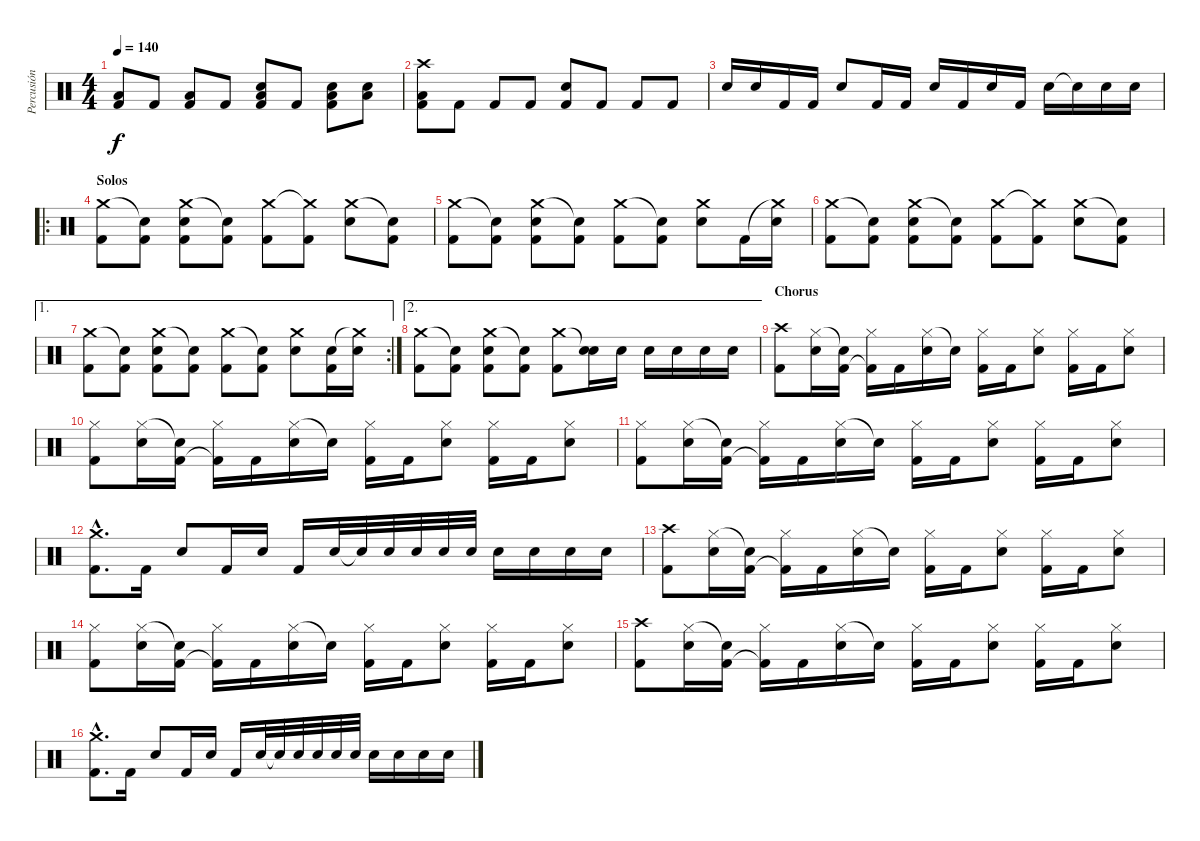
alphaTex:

\track ("Percusión" "Percusión") {instrument percussion}
\staff {score}
\articulation defaults
\ts (4 4)
\tempo 140
\clef neutral
\ks c
("Low Floor Tom (hit)" "Kick (hit) 2").8{dy f} "Kick (hit) 2".8 ("Low Floor Tom (hit)" "Kick (hit) 2").8 "Kick (hit) 2".8 ("Electric Snare (hit)" "Low Floor Tom (hit)" "Kick (hit) 2").8 "Kick (hit) 2".8 ("Electric Snare (hit)" "Low Floor Tom (hit)" "Kick (hit) 2").8 ("Electric Snare (hit)" "Low Floor Tom (hit)").8 |
("Crash high (hit)" "Low Floor Tom (hit)" "Kick (hit) 2").8 "Kick (hit) 2".8 "Kick (hit) 2".8 "Kick (hit) 2".8 ("Electric Snare (hit)" "Kick (hit) 2").8 "Kick (hit) 2".8 "Kick (hit) 2".8 "Kick (hit) 2".8 |
"Electric Snare (hit)".16 "Electric Snare (hit)".16 "Kick (hit) 2".16 "Kick (hit) 2".16 "Electric Snare (hit)".8 "Kick (hit) 2".16 "Kick (hit) 2".16 "Electric Snare (hit)".16 "Kick (hit) 2".16 "Electric Snare (hit)".16 "Kick (hit) 2".16 "Electric Snare (hit)".16 "Snare (hit)"{t}.16 "Electric Snare (hit)".16 "Electric Snare (hit)".16 |
\ro
\section ("" "Solos")
("Crash medium (hit)" "Kick (hit) 2").8 ("Snare (hit)"{t} "Kick (hit) 2").8 ("Crash medium (hit)" "Electric Snare (hit)" "Kick (hit) 2").8 ("Snare (hit)"{t} "Kick (hit) 2").8 ("Crash medium (hit)" "Kick (hit) 2").8 ("Crash medium (hit)"{t} "Kick (hit) 2").8 ("Crash medium (hit)" "Electric Snare (hit)").8 ("Snare (hit)"{t} "Kick (hit) 2").8 |
("Crash medium (hit)" "Kick (hit) 2").8 ("Snare (hit)"{t} "Kick (hit) 2").8 ("Crash medium (hit)" "Electric Snare (hit)" "Kick (hit) 2").8 ("Snare (hit)"{t} "Kick (hit) 2").8 ("Crash medium (hit)" "Kick (hit) 2").8 ("Snare (hit)"{t} "Kick (hit) 2").8 ("Crash medium (hit)" "Electric Snare (hit)").8 "Kick (hit) 2".16 ("Crash medium (hit)"{t} "Electric Snare (hit)").16 |
("Crash medium (hit)" "Kick (hit) 2").8 ("Snare (hit)"{t} "Kick (hit) 2").8 ("Crash medium (hit)" "Electric Snare (hit)" "Kick (hit) 2").8 ("Snare (hit)"{t} "Kick (hit) 2").8 ("Crash medium (hit)" "Kick (hit) 2").8 ("Crash medium (hit)"{t} "Kick (hit) 2").8 ("Crash medium (hit)" "Electric Snare (hit)").8 ("Snare (hit)"{t} "Kick (hit) 2").8 |
\ae 1
\rc 2
("Crash medium (hit)" "Kick (hit) 2").8 ("Snare (hit)"{t} "Kick (hit) 2").8 ("Crash medium (hit)" "Electric Snare (hit)" "Kick (hit) 2").8 ("Snare (hit)"{t} "Kick (hit) 2").8 ("Crash medium (hit)" "Kick (hit) 2").8 ("Snare (hit)"{t} "Kick (hit) 2").8 ("Crash medium (hit)" "Electric Snare (hit)").8 ("Electric Snare (hit)" "Kick (hit) 2").16 ("Crash medium (hit)"{t} "Electric Snare (hit)").16 |
\ae 2
("Crash medium (hit)" "Kick (hit) 2").8 ("Snare (hit)"{t} "Kick (hit) 2").8 ("Crash medium (hit)" "Electric Snare (hit)" "Kick (hit) 2").8 ("Snare (hit)"{t} "Kick (hit) 2").8 ("Crash medium (hit)" "Kick (hit) 2").8 ("Snare (hit)"{t} "Electric Snare (hit)").16 "Electric Snare (hit)".16 "Electric Snare (hit)".16 "Electric Snare (hit)".16 "Electric Snare (hit)".16 "Electric Snare (hit)".16 |
\section ("" "Chorus")
("Crash high (hit)" "Kick (hit) 2").8 ("Hi-Hat (closed)" "Electric Snare (hit)").16 ("Snare (hit)"{t} "Kick (hit) 2").16 ("Hi-Hat (closed)" "Kick (hit) 2"{t}).16 "Kick (hit) 2".16 ("Hi-Hat (closed)" "Electric Snare (hit)").16 "Snare (hit)"{t}.16 ("Hi-Hat (closed)" "Kick (hit) 2").16 "Kick (hit) 2".16 ("Hi-Hat (closed)" "Electric Snare (hit)").8 ("Hi-Hat (closed)" "Kick (hit) 2").16 "Kick (hit) 2".16 ("Hi-Hat (closed)" "Electric Snare (hit)").8 |
("Hi-Hat (closed)" "Kick (hit) 2").8 ("Hi-Hat (closed)" "Electric Snare (hit)").16 ("Snare (hit)"{t} "Kick (hit) 2").16 ("Hi-Hat (closed)" "Kick (hit) 2"{t}).16 "Kick (hit) 2".16 ("Hi-Hat (closed)" "Electric Snare (hit)").16 "Snare (hit)"{t}.16 ("Hi-Hat (closed)" "Kick (hit) 2").16 "Kick (hit) 2".16 ("Hi-Hat (closed)" "Electric Snare (hit)").8 ("Hi-Hat (closed)" "Kick (hit) 2").16 "Kick (hit) 2".16 ("Hi-Hat (closed)" "Electric Snare (hit)").8 |
("Hi-Hat (closed)" "Kick (hit) 2").8 ("Hi-Hat (closed)" "Electric Snare (hit)").16 ("Snare (hit)"{t} "Kick (hit) 2").16 ("Hi-Hat (closed)" "Kick (hit) 2"{t}).16 "Kick (hit) 2".16 ("Hi-Hat (closed)" "Electric Snare (hit)").16 "Snare (hit)"{t}.16 ("Hi-Hat (closed)" "Kick (hit) 2").16 "Kick (hit) 2".16 ("Hi-Hat (closed)" "Electric Snare (hit)").8 ("Hi-Hat (closed)" "Kick (hit) 2").16 "Kick (hit) 2".16 ("Hi-Hat (closed)" "Electric Snare (hit)").8 |
("Crash medium (hit)"{hac} "Kick (hit) 2"{hac}).8{d} "Kick (hit) 2".16 "Electric Snare (hit)".8 "Kick (hit) 2".16 "Electric Snare (hit)".16 "Kick (hit) 2".16 "Electric Snare (hit)".32 "Electric Snare (hit)"{t}.32 "Electric Snare (hit)".32 "Electric Snare (hit)".32 "Electric Snare (hit)".32 "Electric Snare (hit)".32 "Electric Snare (hit)".16 "Electric Snare (hit)".16 "Electric Snare (hit)".16 "Electric Snare (hit)".16 |
("Crash high (hit)" "Kick (hit) 2").8 ("Hi-Hat (closed)" "Electric Snare (hit)").16 ("Snare (hit)"{t} "Kick (hit) 2").16 ("Hi-Hat (closed)" "Kick (hit) 2"{t}).16 "Kick (hit) 2".16 ("Hi-Hat (closed)" "Electric Snare (hit)").16 "Snare (hit)"{t}.16 ("Hi-Hat (closed)" "Kick (hit) 2").16 "Kick (hit) 2".16 ("Hi-Hat (closed)" "Electric Snare (hit)").8 ("Hi-Hat (closed)" "Kick (hit) 2").16 "Kick (hit) 2".16 ("Hi-Hat (closed)" "Electric Snare (hit)").8 |
("Hi-Hat (closed)" "Kick (hit) 2").8 ("Hi-Hat (closed)" "Electric Snare (hit)").16 ("Snare (hit)"{t} "Kick (hit) 2").16 ("Hi-Hat (closed)" "Kick (hit) 2"{t}).16 "Kick (hit) 2".16 ("Hi-Hat (closed)" "Electric Snare (hit)").16 "Snare (hit)"{t}.16 ("Hi-Hat (closed)" "Kick (hit) 2").16 "Kick (hit) 2".16 ("Hi-Hat (closed)" "Electric Snare (hit)").8 ("Hi-Hat (closed)" "Kick (hit) 2").16 "Kick (hit) 2".16 ("Hi-Hat (closed)" "Electric Snare (hit)").8 |
("Crash high (hit)" "Kick (hit) 2").8 ("Hi-Hat (closed)" "Electric Snare (hit)").16 ("Snare (hit)"{t} "Kick (hit) 2").16 ("Hi-Hat (closed)" "Kick (hit) 2"{t}).16 "Kick (hit) 2".16 ("Hi-Hat (closed)" "Electric Snare (hit)").16 "Snare (hit)"{t}.16 ("Hi-Hat (closed)" "Kick (hit) 2").16 "Kick (hit) 2".16 ("Hi-Hat (closed)" "Electric Snare (hit)").8 ("Hi-Hat (closed)" "Kick (hit) 2").16 "Kick (hit) 2".16 ("Hi-Hat (closed)" "Electric Snare (hit)").8 |
("Crash medium (hit)"{hac} "Kick (hit) 2"{hac}).8{d} "Kick (hit) 2".16 "Electric Snare (hit)".8 "Kick (hit) 2".16 "Electric Snare (hit)".16 "Kick (hit) 2".16 "Electric Snare (hit)".32 "Electric Snare (hit)"{t}.32 "Electric Snare (hit)".32 "Electric Snare (hit)".32 "Electric Snare (hit)".32 "Electric Snare (hit)".32 "Electric Snare (hit)".16 "Electric Snare (hit)".16 "Electric Snare (hit)".16 "Electric Snare (hit)".16
